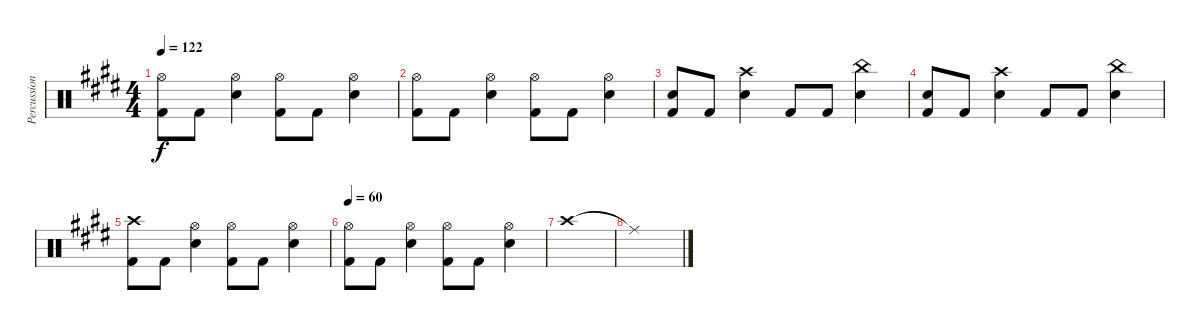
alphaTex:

\track ("Percussion" "Percussion") {instrument percussion}
\staff {score}
\articulation defaults
\ts (4 4)
\tempo 122
\clef neutral
\ks e
("Hi-Hat (open)" "Kick (hit) 2").8{dy f} "Kick (hit) 2".8 ("Hi-Hat (open)" "Snare (hit) 2").4 ("Hi-Hat (open)" "Kick (hit) 2").8 "Kick (hit) 2".8 ("Hi-Hat (open)" "Snare (hit) 2").4 |
("Hi-Hat (open)" "Kick (hit) 2").8 "Kick (hit) 2".8 ("Hi-Hat (open)" "Snare (hit) 2").4 ("Hi-Hat (open)" "Kick (hit) 2").8 "Kick (hit) 2".8 ("Hi-Hat (open)" "Snare (hit) 2").4 |
("Snare (hit) 2" "Kick (hit) 2").8 "Kick (hit) 2".8 ("Crash high (hit)" "Snare (hit) 2").4 "Kick (hit) 2".8 "Kick (hit) 2".8 ("China (hit)" "Snare (hit) 2").4 |
("Snare (hit) 2" "Kick (hit) 2").8 "Kick (hit) 2".8 ("Crash high (hit)" "Snare (hit) 2").4 "Kick (hit) 2".8 "Kick (hit) 2".8 ("China (hit)" "Snare (hit) 2").4 |
("Crash high (hit)" "Kick (hit) 2").8 "Kick (hit) 2".8 ("Hi-Hat (open)" "Snare (hit) 2").4 ("Hi-Hat (open)" "Kick (hit) 2").8 "Kick (hit) 2".8 ("Hi-Hat (open)" "Snare (hit) 2").4 |
\tempo 60
("Hi-Hat (open)" "Kick (hit) 2").8 "Kick (hit) 2".8 ("Hi-Hat (open)" "Snare (hit) 2").4 ("Hi-Hat (open)" "Kick (hit) 2").8 "Kick (hit) 2".8 ("Hi-Hat (open)" "Snare (hit) 2").4 |
"Crash high (hit)".1 |
"Ride (middle)"{t}.1
